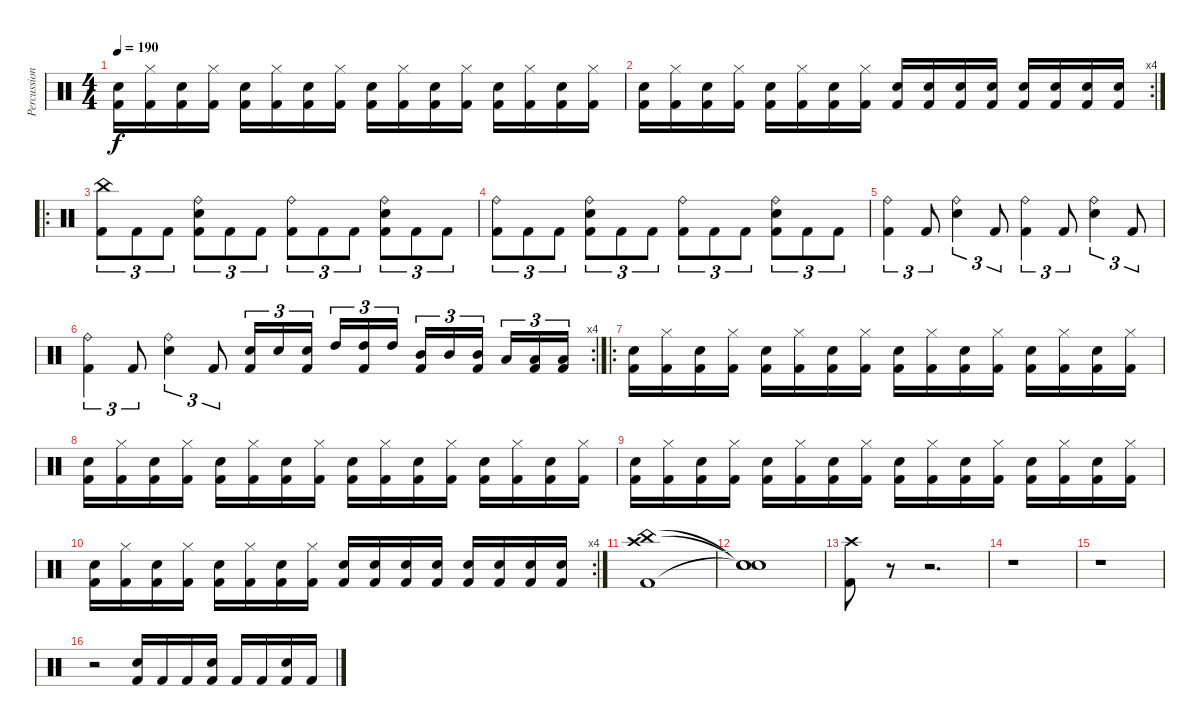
\track ("Percussion" "Percussion") {instrument percussion}
\staff {score}
\articulation defaults
\ts (4 4)
\tempo 190
\clef neutral
\ks c
("Snare (hit) 2" "Kick (hit) 2").16{dy f} ("Hi-Hat (closed)" "Kick (hit) 2").16 ("Snare (hit) 2" "Kick (hit) 2").16 ("Hi-Hat (closed)" "Kick (hit) 2").16 ("Snare (hit) 2" "Kick (hit) 2").16 ("Hi-Hat (closed)" "Kick (hit) 2").16 ("Snare (hit) 2" "Kick (hit) 2").16 ("Hi-Hat (closed)" "Kick (hit) 2").16 ("Snare (hit) 2" "Kick (hit) 2").16 ("Hi-Hat (closed)" "Kick (hit) 2").16 ("Snare (hit) 2" "Kick (hit) 2").16 ("Hi-Hat (closed)" "Kick (hit) 2").16 ("Snare (hit) 2" "Kick (hit) 2").16 ("Hi-Hat (closed)" "Kick (hit) 2").16 ("Snare (hit) 2" "Kick (hit) 2").16 ("Hi-Hat (closed)" "Kick (hit) 2").16 |
\rc 4
("Snare (hit) 2" "Kick (hit) 2").16 ("Hi-Hat (closed)" "Kick (hit) 2").16 ("Snare (hit) 2" "Kick (hit) 2").16 ("Hi-Hat (closed)" "Kick (hit) 2").16 ("Snare (hit) 2" "Kick (hit) 2").16 ("Hi-Hat (closed)" "Kick (hit) 2").16 ("Snare (hit) 2" "Kick (hit) 2").16 ("Hi-Hat (closed)" "Kick (hit) 2").16 ("Snare (hit) 2" "Kick (hit) 2").16 ("Snare (hit) 2" "Kick (hit) 2").16 ("Snare (hit) 2" "Kick (hit) 2").16 ("Snare (hit) 2" "Kick (hit) 2").16 ("Snare (hit) 2" "Kick (hit) 2").16 ("Snare (hit) 2" "Kick (hit) 2").16 ("Snare (hit) 2" "Kick (hit) 2").16 ("Snare (hit) 2" "Kick (hit) 2").16 |
\ro
("China (hit)" "Kick (hit) 2").8{tu (3 2)} "Kick (hit) 2".8{tu (3 2)} "Kick (hit) 2".8{tu (3 2)} ("Ride (bell)" "Snare (hit) 2" "Kick (hit) 2").8{tu (3 2)} "Kick (hit) 2".8{tu (3 2)} "Kick (hit) 2".8{tu (3 2)} ("Ride (bell)" "Kick (hit) 2").8{tu (3 2)} "Kick (hit) 2".8{tu (3 2)} "Kick (hit) 2".8{tu (3 2)} ("Ride (bell)" "Snare (hit) 2" "Kick (hit) 2").8{tu (3 2)} "Kick (hit) 2".8{tu (3 2)} "Kick (hit) 2".8{tu (3 2)} |
("Ride (bell)" "Kick (hit) 2").8{tu (3 2)} "Kick (hit) 2".8{tu (3 2)} "Kick (hit) 2".8{tu (3 2)} ("Ride (bell)" "Snare (hit) 2" "Kick (hit) 2").8{tu (3 2)} "Kick (hit) 2".8{tu (3 2)} "Kick (hit) 2".8{tu (3 2)} ("Ride (bell)" "Kick (hit) 2").8{tu (3 2)} "Kick (hit) 2".8{tu (3 2)} "Kick (hit) 2".8{tu (3 2)} ("Ride (bell)" "Snare (hit) 2" "Kick (hit) 2").8{tu (3 2)} "Kick (hit) 2".8{tu (3 2)} "Kick (hit) 2".8{tu (3 2)} |
("Ride (bell)" "Kick (hit) 2").4{tu (3 2)} "Kick (hit) 2".8{tu (3 2)} ("Ride (bell)" "Snare (hit) 2").4{tu (3 2)} "Kick (hit) 2".8{tu (3 2)} ("Ride (bell)" "Kick (hit) 2").4{tu (3 2)} "Kick (hit) 2".8{tu (3 2)} ("Ride (bell)" "Snare (hit) 2").4{tu (3 2)} "Kick (hit) 2".8{tu (3 2)} |
\rc 4
("Ride (bell)" "Kick (hit) 2").4{tu (3 2)} "Kick (hit) 2".8{tu (3 2)} ("Ride (bell)" "Snare (hit) 2").4{tu (3 2)} "Kick (hit) 2".8{tu (3 2)} ("Snare (hit) 2" "Kick (hit) 2").16{tu (3 2)} "Snare (hit) 2".16{tu (3 2)} ("Snare (hit) 2" "Kick (hit) 2").16{tu (3 2)} "High Tom (hit)".16{tu (3 2)} ("High Tom (hit)" "Kick (hit) 2").16{tu (3 2)} "High Tom (hit)".16{tu (3 2)} ("Mid Tom (hit)" "Kick (hit) 2").16{tu (3 2)} "Mid Tom (hit)".16{tu (3 2)} ("Mid Tom (hit)" "Kick (hit) 2").16{tu (3 2)} "Low Tom (hit)".16{tu (3 2)} ("Low Tom (hit)" "Kick (hit) 2").16{tu (3 2)} ("Low Tom (hit)" "Kick (hit) 2").16{tu (3 2)} |
\ro
("Snare (hit) 2" "Kick (hit) 2").16 ("Hi-Hat (closed)" "Kick (hit) 2").16 ("Snare (hit) 2" "Kick (hit) 2").16 ("Hi-Hat (closed)" "Kick (hit) 2").16 ("Snare (hit) 2" "Kick (hit) 2").16 ("Hi-Hat (closed)" "Kick (hit) 2").16 ("Snare (hit) 2" "Kick (hit) 2").16 ("Hi-Hat (closed)" "Kick (hit) 2").16 ("Snare (hit) 2" "Kick (hit) 2").16 ("Hi-Hat (closed)" "Kick (hit) 2").16 ("Snare (hit) 2" "Kick (hit) 2").16 ("Hi-Hat (closed)" "Kick (hit) 2").16 ("Snare (hit) 2" "Kick (hit) 2").16 ("Hi-Hat (closed)" "Kick (hit) 2").16 ("Snare (hit) 2" "Kick (hit) 2").16 ("Hi-Hat (closed)" "Kick (hit) 2").16 |
("Snare (hit) 2" "Kick (hit) 2").16 ("Hi-Hat (closed)" "Kick (hit) 2").16 ("Snare (hit) 2" "Kick (hit) 2").16 ("Hi-Hat (closed)" "Kick (hit) 2").16 ("Snare (hit) 2" "Kick (hit) 2").16 ("Hi-Hat (closed)" "Kick (hit) 2").16 ("Snare (hit) 2" "Kick (hit) 2").16 ("Hi-Hat (closed)" "Kick (hit) 2").16 ("Snare (hit) 2" "Kick (hit) 2").16 ("Hi-Hat (closed)" "Kick (hit) 2").16 ("Snare (hit) 2" "Kick (hit) 2").16 ("Hi-Hat (closed)" "Kick (hit) 2").16 ("Snare (hit) 2" "Kick (hit) 2").16 ("Hi-Hat (closed)" "Kick (hit) 2").16 ("Snare (hit) 2" "Kick (hit) 2").16 ("Hi-Hat (closed)" "Kick (hit) 2").16 |
("Snare (hit) 2" "Kick (hit) 2").16 ("Hi-Hat (closed)" "Kick (hit) 2").16 ("Snare (hit) 2" "Kick (hit) 2").16 ("Hi-Hat (closed)" "Kick (hit) 2").16 ("Snare (hit) 2" "Kick (hit) 2").16 ("Hi-Hat (closed)" "Kick (hit) 2").16 ("Snare (hit) 2" "Kick (hit) 2").16 ("Hi-Hat (closed)" "Kick (hit) 2").16 ("Snare (hit) 2" "Kick (hit) 2").16 ("Hi-Hat (closed)" "Kick (hit) 2").16 ("Snare (hit) 2" "Kick (hit) 2").16 ("Hi-Hat (closed)" "Kick (hit) 2").16 ("Snare (hit) 2" "Kick (hit) 2").16 ("Hi-Hat (closed)" "Kick (hit) 2").16 ("Snare (hit) 2" "Kick (hit) 2").16 ("Hi-Hat (closed)" "Kick (hit) 2").16 |
\rc 4
("Snare (hit) 2" "Kick (hit) 2").16 ("Hi-Hat (closed)" "Kick (hit) 2").16 ("Snare (hit) 2" "Kick (hit) 2").16 ("Hi-Hat (closed)" "Kick (hit) 2").16 ("Snare (hit) 2" "Kick (hit) 2").16 ("Hi-Hat (closed)" "Kick (hit) 2").16 ("Snare (hit) 2" "Kick (hit) 2").16 ("Hi-Hat (closed)" "Kick (hit) 2").16 ("Snare (hit) 2" "Kick (hit) 2").16 ("Snare (hit) 2" "Kick (hit) 2").16 ("Snare (hit) 2" "Kick (hit) 2").16 ("Snare (hit) 2" "Kick (hit) 2").16 ("Snare (hit) 2" "Kick (hit) 2").16 ("Snare (hit) 2" "Kick (hit) 2").16 ("Snare (hit) 2" "Kick (hit) 2").16 ("Snare (hit) 2" "Kick (hit) 2").16 |
("Kick (hit) 2" "China (hit)" "Crash high (hit)").1 |
("Snare (hit)"{t} "Snare (hit)"{t} "Snare (hit)"{t}).1 |
("Kick (hit) 2" "Crash high (hit)").8 r.8 r.2{d} |
r.1 |
r.1 |
r.2 ("Snare (hit) 2" "Kick (hit) 2").16 "Kick (hit) 2".16 "Kick (hit) 2".16 ("Snare (hit) 2" "Kick (hit) 2").16 "Kick (hit) 2".16 "Kick (hit) 2".16 ("Snare (hit) 2" "Kick (hit) 2").16 "Kick (hit) 2".16
